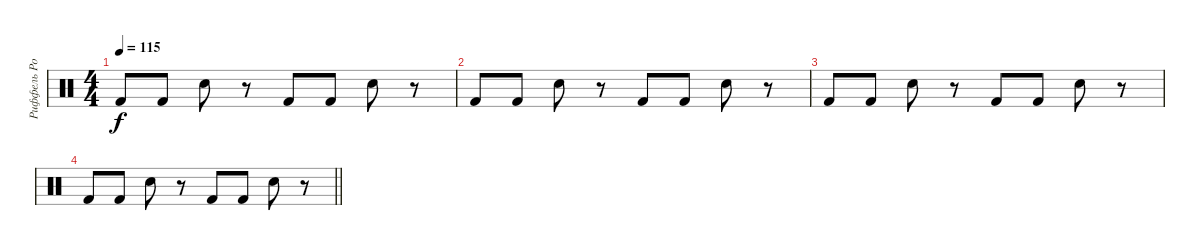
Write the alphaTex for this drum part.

\track ("Риффель Роман (главные)" "Риффель Ро") {instrument percussion}
\staff {score}
\articulation defaults
\ts (4 4)
\tempo 115
\clef neutral
\ks c "Kick (hit) 2".8{dy f} "Kick (hit) 2".8 "Electric Snare (hit)".8
r.8 "Kick (hit) 2".8 "Kick (hit) 2".8 "Electric Snare (hit)".8 r.8 |
"Kick (hit) 2".8 "Kick (hit) 2".8 "Electric Snare (hit)".8 r.8 "Kick (hit) 2".8 "Kick (hit) 2".8 "Electric Snare (hit)".8 r.8 |
"Kick (hit) 2".8 "Kick (hit) 2".8 "Electric Snare (hit)".8 r.8 "Kick (hit) 2".8 "Kick (hit) 2".8 "Electric Snare (hit)".8 r.8 |
\barLineRight lightlight "Kick (hit) 2".8 "Kick (hit) 2".8 "Electric Snare (hit)".8
r.8 "Kick (hit) 2".8 "Kick (hit) 2".8 "Electric Snare (hit)".8 r.8
